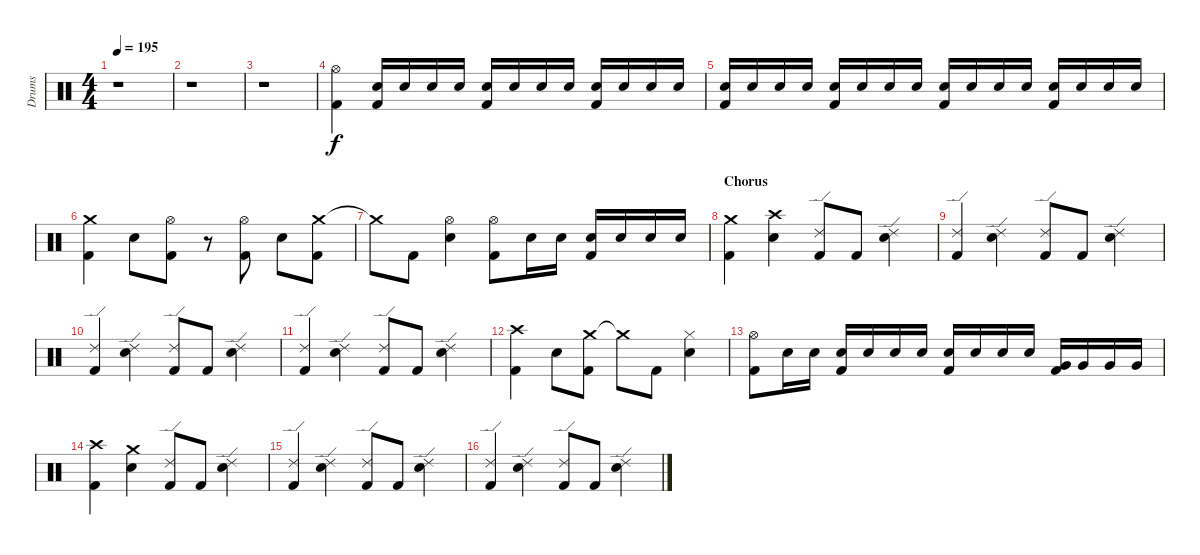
\track ("Drums" "Drums") {instrument percussion}
\staff {score}
\articulation defaults
\ts (4 4)
\tempo 195
\clef neutral
\ks c
r.1{dy f} |
r.1 |
r.1 |
("Hi-Hat (open)" "Kick (hit) 2").4 ("Snare (hit) 2" "Kick (hit) 2").16 "Snare (hit) 2".16 "Snare (hit) 2".16 "Snare (hit) 2".16 ("Snare (hit) 2" "Kick (hit) 2").16 "Snare (hit) 2".16 "Snare (hit) 2".16 "Snare (hit) 2".16 ("Snare (hit) 2" "Kick (hit) 2").16 "Snare (hit) 2".16 "Snare (hit) 2".16 "Snare (hit) 2".16 |
("Snare (hit) 2" "Kick (hit) 2").16 "Snare (hit) 2".16 "Snare (hit) 2".16 "Snare (hit) 2".16 ("Snare (hit) 2" "Kick (hit) 2").16 "Snare (hit) 2".16 "Snare (hit) 2".16 "Snare (hit) 2".16 ("Snare (hit) 2" "Kick (hit) 2").16 "Snare (hit) 2".16 "Snare (hit) 2".16 "Snare (hit) 2".16 ("Snare (hit) 2" "Kick (hit) 2").16 "Snare (hit) 2".16 "Snare (hit) 2".16 "Snare (hit) 2".16 |
("Crash medium (hit)" "Kick (hit) 2").4 "Snare (hit) 2".8 ("Hi-Hat (open)" "Kick (hit) 2").8 r.8 ("Hi-Hat (open)" "Kick (hit) 2").8 "Snare (hit) 2".8 ("Crash medium (hit)" "Kick (hit) 2").8 |
"Crash medium (hit)"{t}.8 "Kick (hit) 2".8 ("Hi-Hat (open)" "Snare (hit) 2").4 ("Hi-Hat (open)" "Kick (hit) 2").8 "Snare (hit) 2".16 "Snare (hit) 2".16 ("Snare (hit) 2" "Kick (hit) 2").16 "Snare (hit) 2".16 "Snare (hit) 2".16 "Snare (hit) 2".16 |
\section ("" "Chorus")
("Crash medium (hit)" "Kick (hit) 2").4 ("Crash high (hit)" "Snare (hit) 2").4 ("Ride (edge) 2" "Kick (hit) 2").8 "Kick (hit) 2".8 ("Ride (edge) 2" "Snare (hit) 2").4 |
("Ride (edge) 2" "Kick (hit) 2").4 ("Ride (edge) 2" "Snare (hit) 2").4 ("Ride (edge) 2" "Kick (hit) 2").8 "Kick (hit) 2".8 ("Ride (edge) 2" "Snare (hit) 2").4 |
("Ride (edge) 2" "Kick (hit) 2").4 ("Ride (edge) 2" "Snare (hit) 2").4 ("Ride (edge) 2" "Kick (hit) 2").8 "Kick (hit) 2".8 ("Ride (edge) 2" "Snare (hit) 2").4 |
("Ride (edge) 2" "Kick (hit) 2").4 ("Ride (edge) 2" "Snare (hit) 2").4 ("Ride (edge) 2" "Kick (hit) 2").8 "Kick (hit) 2".8 ("Ride (edge) 2" "Snare (hit) 2").4 |
("Crash high (hit)" "Kick (hit) 2").4 "Snare (hit) 2".8 ("Crash medium (hit)" "Kick (hit) 2").8 "Crash medium (hit)"{t}.8 "Kick (hit) 2".8 ("Hi-Hat (closed)" "Snare (hit) 2").4 |
("Hi-Hat (open)" "Kick (hit) 2").8 "Snare (hit) 2".16 "Snare (hit) 2".16 ("Snare (hit) 2" "Kick (hit) 2").16 "Snare (hit) 2".16 "Snare (hit) 2".16 "Snare (hit) 2".16 ("Snare (hit) 2" "Kick (hit) 2").16 "Snare (hit) 2".16 "Snare (hit) 2".16 "Snare (hit) 2".16 ("Very Low Tom (hit)" "Kick (hit) 2").16 "Very Low Tom (hit)".16 "Very Low Tom (hit)".16 "Very Low Tom (hit)".16 |
("Crash high (hit)" "Kick (hit) 2").4 ("Crash medium (hit)" "Snare (hit) 2").4 ("Ride (edge) 2" "Kick (hit) 2").8 "Kick (hit) 2".8 ("Ride (edge) 2" "Snare (hit) 2").4 |
("Ride (edge) 2" "Kick (hit) 2").4 ("Ride (edge) 2" "Snare (hit) 2").4 ("Ride (edge) 2" "Kick (hit) 2").8 "Kick (hit) 2".8 ("Ride (edge) 2" "Snare (hit) 2").4 |
("Ride (edge) 2" "Kick (hit) 2").4 ("Ride (edge) 2" "Snare (hit) 2").4 ("Ride (edge) 2" "Kick (hit) 2").8 "Kick (hit) 2".8 ("Ride (edge) 2" "Snare (hit) 2").4
